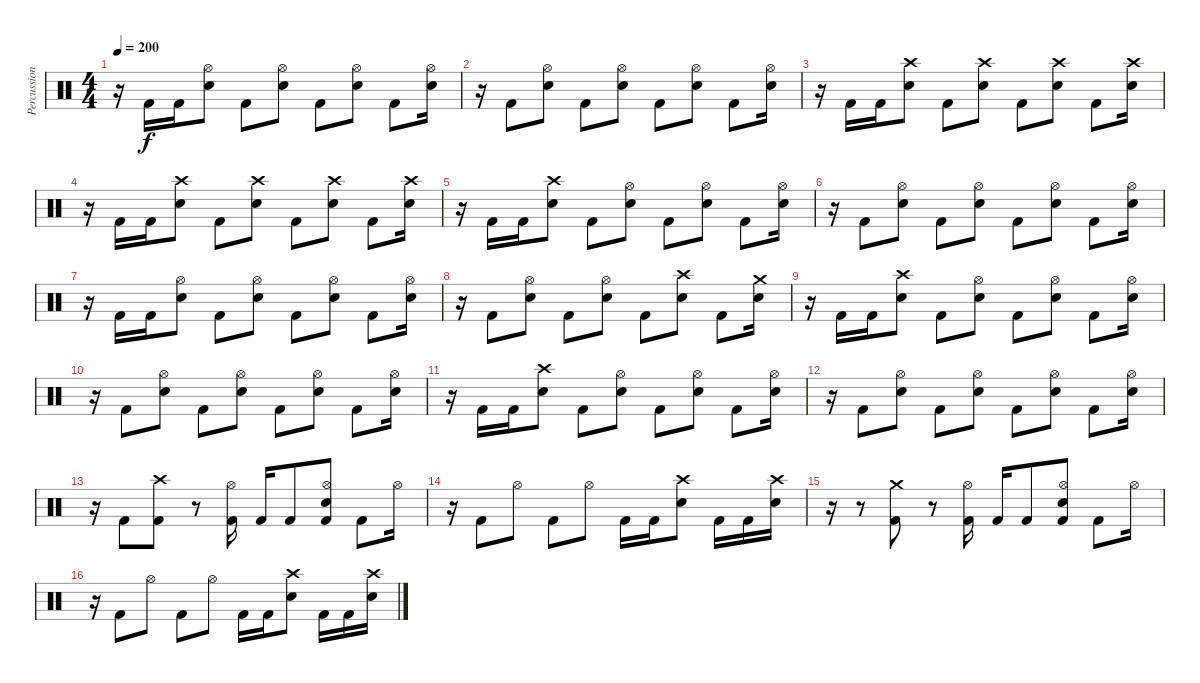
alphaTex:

\track ("Percussion" "Percussion") {instrument percussion}
\staff {score}
\articulation defaults
\ts (4 4)
\tempo 200
\clef neutral
\ks c
r.16{dy f} "Kick (hit) 2".16 "Kick (hit) 2".16 ("Hi-Hat (open)" "Snare (hit) 2").8 "Kick (hit) 2".8 ("Hi-Hat (open)" "Snare (hit) 2").8 "Kick (hit) 2".8 ("Hi-Hat (open)" "Snare (hit) 2").8 "Kick (hit) 2".8 ("Hi-Hat (open)" "Snare (hit) 2").16 |
r.16 "Kick (hit) 2".8 ("Hi-Hat (open)" "Snare (hit) 2").8 "Kick (hit) 2".8 ("Hi-Hat (open)" "Snare (hit) 2").8 "Kick (hit) 2".8 ("Hi-Hat (open)" "Snare (hit) 2").8 "Kick (hit) 2".8 ("Hi-Hat (open)" "Snare (hit) 2").16 |
r.16 "Kick (hit) 2".16 "Kick (hit) 2".16 ("Crash high (hit)" "Snare (hit) 2").8 "Kick (hit) 2".8 ("Crash high (hit)" "Snare (hit) 2").8 "Kick (hit) 2".8 ("Crash high (hit)" "Snare (hit) 2").8 "Kick (hit) 2".8 ("Crash high (hit)" "Snare (hit) 2").16 |
r.16 "Kick (hit) 2".16 "Kick (hit) 2".16 ("Crash high (hit)" "Snare (hit) 2").8 "Kick (hit) 2".8 ("Crash high (hit)" "Snare (hit) 2").8 "Kick (hit) 2".8 ("Crash high (hit)" "Snare (hit) 2").8 "Kick (hit) 2".8 ("Crash high (hit)" "Snare (hit) 2").16 |
r.16 "Kick (hit) 2".16 "Kick (hit) 2".16 ("Crash high (hit)" "Snare (hit) 2").8 "Kick (hit) 2".8 ("Hi-Hat (open)" "Snare (hit) 2").8 "Kick (hit) 2".8 ("Hi-Hat (open)" "Snare (hit) 2").8 "Kick (hit) 2".8 ("Hi-Hat (open)" "Snare (hit) 2").16 |
r.16 "Kick (hit) 2".8 ("Hi-Hat (open)" "Snare (hit) 2").8 "Kick (hit) 2".8 ("Hi-Hat (open)" "Snare (hit) 2").8 "Kick (hit) 2".8 ("Hi-Hat (open)" "Snare (hit) 2").8 "Kick (hit) 2".8 ("Hi-Hat (open)" "Snare (hit) 2").16 |
r.16 "Kick (hit) 2".16 "Kick (hit) 2".16 ("Hi-Hat (open)" "Snare (hit) 2").8 "Kick (hit) 2".8 ("Hi-Hat (open)" "Snare (hit) 2").8 "Kick (hit) 2".8 ("Hi-Hat (open)" "Snare (hit) 2").8 "Kick (hit) 2".8 ("Hi-Hat (open)" "Snare (hit) 2").16 |
r.16 "Kick (hit) 2".8 ("Hi-Hat (open)" "Snare (hit) 2").8 "Kick (hit) 2".8 ("Hi-Hat (open)" "Snare (hit) 2").8 "Kick (hit) 2".8 ("Crash high (hit)" "Snare (hit) 2").8 "Kick (hit) 2".8 ("Crash medium (hit)" "Snare (hit) 2").16 |
r.16 "Kick (hit) 2".16 "Kick (hit) 2".16 ("Crash high (hit)" "Snare (hit) 2").8 "Kick (hit) 2".8 ("Hi-Hat (open)" "Snare (hit) 2").8 "Kick (hit) 2".8 ("Hi-Hat (open)" "Snare (hit) 2").8 "Kick (hit) 2".8 ("Hi-Hat (open)" "Snare (hit) 2").16 |
r.16 "Kick (hit) 2".8 ("Hi-Hat (open)" "Snare (hit) 2").8 "Kick (hit) 2".8 ("Hi-Hat (open)" "Snare (hit) 2").8 "Kick (hit) 2".8 ("Hi-Hat (open)" "Snare (hit) 2").8 "Kick (hit) 2".8 ("Hi-Hat (open)" "Snare (hit) 2").16 |
r.16 "Kick (hit) 2".16 "Kick (hit) 2".16 ("Crash high (hit)" "Snare (hit) 2").8 "Kick (hit) 2".8 ("Hi-Hat (open)" "Snare (hit) 2").8 "Kick (hit) 2".8 ("Hi-Hat (open)" "Snare (hit) 2").8 "Kick (hit) 2".8 ("Hi-Hat (open)" "Snare (hit) 2").16 |
r.16 "Kick (hit) 2".8 ("Hi-Hat (open)" "Snare (hit) 2").8 "Kick (hit) 2".8 ("Hi-Hat (open)" "Snare (hit) 2").8 "Kick (hit) 2".8 ("Hi-Hat (open)" "Snare (hit) 2").8 "Kick (hit) 2".8 ("Hi-Hat (open)" "Snare (hit) 2").16 |
r.16 "Kick (hit) 2".8 ("Crash high (hit)" "Kick (hit) 2").8 r.8 ("Hi-Hat (open)" "Kick (hit) 2").16 "Kick (hit) 2".16 "Kick (hit) 2".8 ("Hi-Hat (open)" "Snare (hit) 2" "Kick (hit) 2").8 "Kick (hit) 2".8 "Hi-Hat (open)".16 |
r.16 "Kick (hit) 2".8 "Hi-Hat (open)".8 "Kick (hit) 2".8 "Hi-Hat (open)".8 "Kick (hit) 2".16 "Kick (hit) 2".16 ("Crash high (hit)" "Snare (hit) 2").8 "Kick (hit) 2".16 "Kick (hit) 2".16 ("Crash high (hit)" "Snare (hit) 2").16 |
r.16 r.8 ("Crash medium (hit)" "Kick (hit) 2").8 r.8 ("Hi-Hat (open)" "Kick (hit) 2").16 "Kick (hit) 2".16 "Kick (hit) 2".8 ("Hi-Hat (open)" "Snare (hit) 2" "Kick (hit) 2").8 "Kick (hit) 2".8 "Hi-Hat (open)".16 |
r.16 "Kick (hit) 2".8 "Hi-Hat (open)".8 "Kick (hit) 2".8 "Hi-Hat (open)".8 "Kick (hit) 2".16 "Kick (hit) 2".16 ("Crash high (hit)" "Snare (hit) 2").8 "Kick (hit) 2".16 "Kick (hit) 2".16 ("Crash high (hit)" "Snare (hit) 2").16
